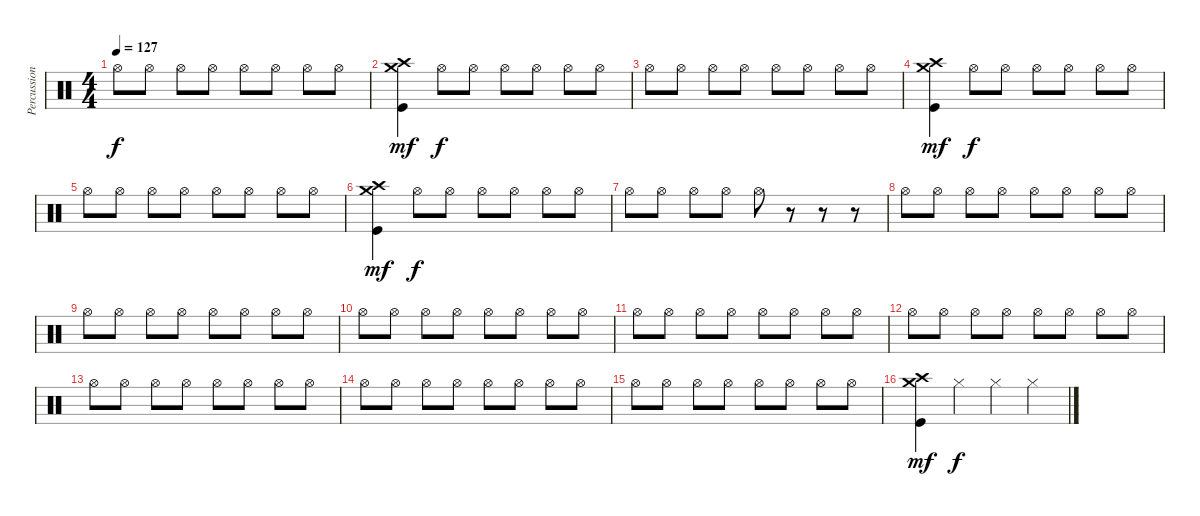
\track ("Percussion" "Percussion") {instrument percussion}
\staff {score}
\articulation defaults
\ts (4 4)
\tempo 127
\clef neutral
\ks c "Hi-Hat (open)".8{dy f} "Hi-Hat (open)".8 "Hi-Hat (open)".8 "Hi-Hat (open)".8 "Hi-Hat (open)".8 "Hi-Hat (open)".8 "Hi-Hat (open)".8 "Hi-Hat (open)".8
|
("Crash medium (hit)" "Crash high (hit)" "Kick (hit)").4{dy mf volume 12} "Hi-Hat (open)".8{dy f} "Hi-Hat (open)".8 "Hi-Hat (open)".8 "Hi-Hat (open)".8 "Hi-Hat (open)".8 "Hi-Hat (open)".8 |
"Hi-Hat (open)".8 "Hi-Hat (open)".8 "Hi-Hat (open)".8 "Hi-Hat (open)".8 "Hi-Hat (open)".8 "Hi-Hat (open)".8 "Hi-Hat (open)".8 "Hi-Hat (open)".8 |
("Crash medium (hit)" "Crash high (hit)" "Kick (hit)").4{dy mf volume 12} "Hi-Hat (open)".8{dy f} "Hi-Hat (open)".8 "Hi-Hat (open)".8 "Hi-Hat (open)".8 "Hi-Hat (open)".8 "Hi-Hat (open)".8 |
"Hi-Hat (open)".8 "Hi-Hat (open)".8 "Hi-Hat (open)".8 "Hi-Hat (open)".8 "Hi-Hat (open)".8 "Hi-Hat (open)".8 "Hi-Hat (open)".8 "Hi-Hat (open)".8 |
("Crash medium (hit)" "Crash high (hit)" "Kick (hit)").4{dy mf volume 12} "Hi-Hat (open)".8{dy f} "Hi-Hat (open)".8 "Hi-Hat (open)".8 "Hi-Hat (open)".8 "Hi-Hat (open)".8 "Hi-Hat (open)".8 |
"Hi-Hat (open)".8 "Hi-Hat (open)".8 "Hi-Hat (open)".8 "Hi-Hat (open)".8 "Hi-Hat (open)".8 r.8 r.8 r.8 |
"Hi-Hat (open)".8 "Hi-Hat (open)".8 "Hi-Hat (open)".8 "Hi-Hat (open)".8 "Hi-Hat (open)".8 "Hi-Hat (open)".8 "Hi-Hat (open)".8 "Hi-Hat (open)".8 |
"Hi-Hat (open)".8 "Hi-Hat (open)".8 "Hi-Hat (open)".8 "Hi-Hat (open)".8 "Hi-Hat (open)".8 "Hi-Hat (open)".8 "Hi-Hat (open)".8 "Hi-Hat (open)".8 |
"Hi-Hat (open)".8 "Hi-Hat (open)".8 "Hi-Hat (open)".8 "Hi-Hat (open)".8 "Hi-Hat (open)".8 "Hi-Hat (open)".8 "Hi-Hat (open)".8 "Hi-Hat (open)".8 |
"Hi-Hat (open)".8 "Hi-Hat (open)".8 "Hi-Hat (open)".8 "Hi-Hat (open)".8 "Hi-Hat (open)".8 "Hi-Hat (open)".8 "Hi-Hat (open)".8 "Hi-Hat (open)".8 |
"Hi-Hat (open)".8 "Hi-Hat (open)".8 "Hi-Hat (open)".8 "Hi-Hat (open)".8 "Hi-Hat (open)".8 "Hi-Hat (open)".8 "Hi-Hat (open)".8 "Hi-Hat (open)".8 |
"Hi-Hat (open)".8 "Hi-Hat (open)".8 "Hi-Hat (open)".8 "Hi-Hat (open)".8 "Hi-Hat (open)".8 "Hi-Hat (open)".8 "Hi-Hat (open)".8 "Hi-Hat (open)".8 |
"Hi-Hat (open)".8 "Hi-Hat (open)".8 "Hi-Hat (open)".8 "Hi-Hat (open)".8 "Hi-Hat (open)".8 "Hi-Hat (open)".8 "Hi-Hat (open)".8 "Hi-Hat (open)".8 |
"Hi-Hat (open)".8 "Hi-Hat (open)".8 "Hi-Hat (open)".8 "Hi-Hat (open)".8 "Hi-Hat (open)".8 "Hi-Hat (open)".8 "Hi-Hat (open)".8 "Hi-Hat (open)".8 |
("Crash medium (hit)" "Crash high (hit)" "Kick (hit)").4{dy mf volume 12} "Hi-Hat (closed)".4{dy f} "Hi-Hat (closed)".4 "Hi-Hat (closed)".4
